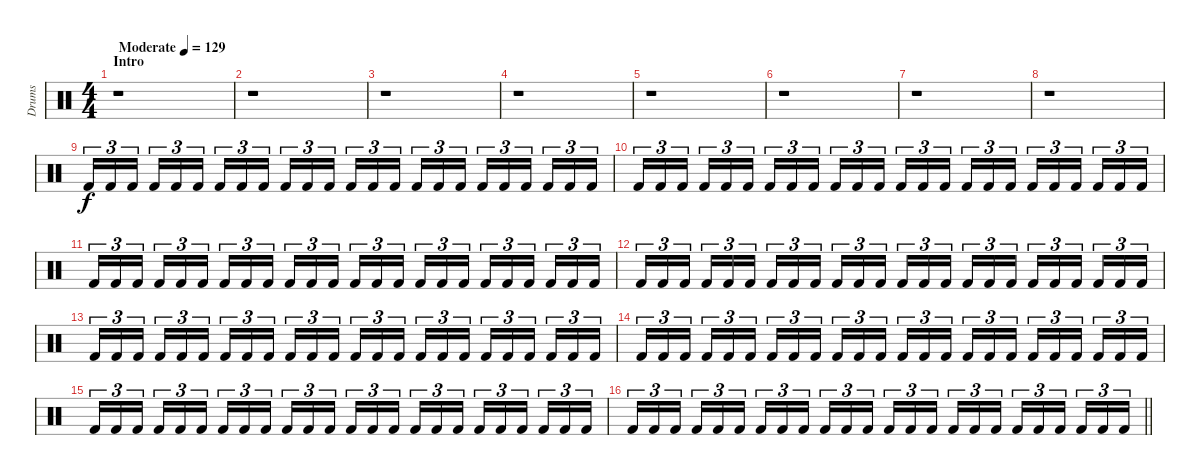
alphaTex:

\track ("Drums" "Drums") {instrument percussion}
\staff {score}
\articulation defaults
\ts (4 4)
\section ("" "Intro")
\tempo (129 "Moderate")
\clef neutral
\ks c
r.1{dy f} |
r.1 |
r.1 |
r.1 |
r.1 |
r.1 |
r.1 |
r.1 |
"Kick (hit) 2".16{tu (3 2)} "Kick (hit) 2".16{tu (3 2)} "Kick (hit) 2".16{tu (3 2) beam splitsecondary} "Kick (hit) 2".16{tu (3 2)} "Kick (hit) 2".16{tu (3 2)} "Kick (hit) 2".16{tu (3 2)} "Kick (hit) 2".16{tu (3 2)} "Kick (hit) 2".16{tu (3 2)} "Kick (hit) 2".16{tu (3 2) beam splitsecondary} "Kick (hit) 2".16{tu (3 2)} "Kick (hit) 2".16{tu (3 2)} "Kick (hit) 2".16{tu (3 2)} "Kick (hit) 2".16{tu (3 2)} "Kick (hit) 2".16{tu (3 2)} "Kick (hit) 2".16{tu (3 2) beam splitsecondary} "Kick (hit) 2".16{tu (3 2)} "Kick (hit) 2".16{tu (3 2)} "Kick (hit) 2".16{tu (3 2)} "Kick (hit) 2".16{tu (3 2)} "Kick (hit) 2".16{tu (3 2)} "Kick (hit) 2".16{tu (3 2) beam splitsecondary} "Kick (hit) 2".16{tu (3 2)} "Kick (hit) 2".16{tu (3 2)} "Kick (hit) 2".16{tu (3 2)} |
"Kick (hit) 2".16{tu (3 2)} "Kick (hit) 2".16{tu (3 2)} "Kick (hit) 2".16{tu (3 2) beam splitsecondary} "Kick (hit) 2".16{tu (3 2)} "Kick (hit) 2".16{tu (3 2)} "Kick (hit) 2".16{tu (3 2)} "Kick (hit) 2".16{tu (3 2)} "Kick (hit) 2".16{tu (3 2)} "Kick (hit) 2".16{tu (3 2) beam splitsecondary} "Kick (hit) 2".16{tu (3 2)} "Kick (hit) 2".16{tu (3 2)} "Kick (hit) 2".16{tu (3 2)} "Kick (hit) 2".16{tu (3 2)} "Kick (hit) 2".16{tu (3 2)} "Kick (hit) 2".16{tu (3 2) beam splitsecondary} "Kick (hit) 2".16{tu (3 2)} "Kick (hit) 2".16{tu (3 2)} "Kick (hit) 2".16{tu (3 2)} "Kick (hit) 2".16{tu (3 2)} "Kick (hit) 2".16{tu (3 2)} "Kick (hit) 2".16{tu (3 2) beam splitsecondary} "Kick (hit) 2".16{tu (3 2)} "Kick (hit) 2".16{tu (3 2)} "Kick (hit) 2".16{tu (3 2)} |
"Kick (hit) 2".16{tu (3 2)} "Kick (hit) 2".16{tu (3 2)} "Kick (hit) 2".16{tu (3 2) beam splitsecondary} "Kick (hit) 2".16{tu (3 2)} "Kick (hit) 2".16{tu (3 2)} "Kick (hit) 2".16{tu (3 2)} "Kick (hit) 2".16{tu (3 2)} "Kick (hit) 2".16{tu (3 2)} "Kick (hit) 2".16{tu (3 2) beam splitsecondary} "Kick (hit) 2".16{tu (3 2)} "Kick (hit) 2".16{tu (3 2)} "Kick (hit) 2".16{tu (3 2)} "Kick (hit) 2".16{tu (3 2)} "Kick (hit) 2".16{tu (3 2)} "Kick (hit) 2".16{tu (3 2) beam splitsecondary} "Kick (hit) 2".16{tu (3 2)} "Kick (hit) 2".16{tu (3 2)} "Kick (hit) 2".16{tu (3 2)} "Kick (hit) 2".16{tu (3 2)} "Kick (hit) 2".16{tu (3 2)} "Kick (hit) 2".16{tu (3 2) beam splitsecondary} "Kick (hit) 2".16{tu (3 2)} "Kick (hit) 2".16{tu (3 2)} "Kick (hit) 2".16{tu (3 2)} |
"Kick (hit) 2".16{tu (3 2)} "Kick (hit) 2".16{tu (3 2)} "Kick (hit) 2".16{tu (3 2) beam splitsecondary} "Kick (hit) 2".16{tu (3 2)} "Kick (hit) 2".16{tu (3 2)} "Kick (hit) 2".16{tu (3 2)} "Kick (hit) 2".16{tu (3 2)} "Kick (hit) 2".16{tu (3 2)} "Kick (hit) 2".16{tu (3 2) beam splitsecondary} "Kick (hit) 2".16{tu (3 2)} "Kick (hit) 2".16{tu (3 2)} "Kick (hit) 2".16{tu (3 2)} "Kick (hit) 2".16{tu (3 2)} "Kick (hit) 2".16{tu (3 2)} "Kick (hit) 2".16{tu (3 2) beam splitsecondary} "Kick (hit) 2".16{tu (3 2)} "Kick (hit) 2".16{tu (3 2)} "Kick (hit) 2".16{tu (3 2)} "Kick (hit) 2".16{tu (3 2)} "Kick (hit) 2".16{tu (3 2)} "Kick (hit) 2".16{tu (3 2) beam splitsecondary} "Kick (hit) 2".16{tu (3 2)} "Kick (hit) 2".16{tu (3 2)} "Kick (hit) 2".16{tu (3 2)} |
"Kick (hit) 2".16{tu (3 2)} "Kick (hit) 2".16{tu (3 2)} "Kick (hit) 2".16{tu (3 2) beam splitsecondary} "Kick (hit) 2".16{tu (3 2)} "Kick (hit) 2".16{tu (3 2)} "Kick (hit) 2".16{tu (3 2)} "Kick (hit) 2".16{tu (3 2)} "Kick (hit) 2".16{tu (3 2)} "Kick (hit) 2".16{tu (3 2) beam splitsecondary} "Kick (hit) 2".16{tu (3 2)} "Kick (hit) 2".16{tu (3 2)} "Kick (hit) 2".16{tu (3 2)} "Kick (hit) 2".16{tu (3 2)} "Kick (hit) 2".16{tu (3 2)} "Kick (hit) 2".16{tu (3 2) beam splitsecondary} "Kick (hit) 2".16{tu (3 2)} "Kick (hit) 2".16{tu (3 2)} "Kick (hit) 2".16{tu (3 2)} "Kick (hit) 2".16{tu (3 2)} "Kick (hit) 2".16{tu (3 2)} "Kick (hit) 2".16{tu (3 2) beam splitsecondary} "Kick (hit) 2".16{tu (3 2)} "Kick (hit) 2".16{tu (3 2)} "Kick (hit) 2".16{tu (3 2)} |
"Kick (hit) 2".16{tu (3 2)} "Kick (hit) 2".16{tu (3 2)} "Kick (hit) 2".16{tu (3 2) beam splitsecondary} "Kick (hit) 2".16{tu (3 2)} "Kick (hit) 2".16{tu (3 2)} "Kick (hit) 2".16{tu (3 2)} "Kick (hit) 2".16{tu (3 2)} "Kick (hit) 2".16{tu (3 2)} "Kick (hit) 2".16{tu (3 2) beam splitsecondary} "Kick (hit) 2".16{tu (3 2)} "Kick (hit) 2".16{tu (3 2)} "Kick (hit) 2".16{tu (3 2)} "Kick (hit) 2".16{tu (3 2)} "Kick (hit) 2".16{tu (3 2)} "Kick (hit) 2".16{tu (3 2) beam splitsecondary} "Kick (hit) 2".16{tu (3 2)} "Kick (hit) 2".16{tu (3 2)} "Kick (hit) 2".16{tu (3 2)} "Kick (hit) 2".16{tu (3 2)} "Kick (hit) 2".16{tu (3 2)} "Kick (hit) 2".16{tu (3 2) beam splitsecondary} "Kick (hit) 2".16{tu (3 2)} "Kick (hit) 2".16{tu (3 2)} "Kick (hit) 2".16{tu (3 2)} |
"Kick (hit) 2".16{tu (3 2)} "Kick (hit) 2".16{tu (3 2)} "Kick (hit) 2".16{tu (3 2) beam splitsecondary} "Kick (hit) 2".16{tu (3 2)} "Kick (hit) 2".16{tu (3 2)} "Kick (hit) 2".16{tu (3 2)} "Kick (hit) 2".16{tu (3 2)} "Kick (hit) 2".16{tu (3 2)} "Kick (hit) 2".16{tu (3 2) beam splitsecondary} "Kick (hit) 2".16{tu (3 2)} "Kick (hit) 2".16{tu (3 2)} "Kick (hit) 2".16{tu (3 2)} "Kick (hit) 2".16{tu (3 2)} "Kick (hit) 2".16{tu (3 2)} "Kick (hit) 2".16{tu (3 2) beam splitsecondary} "Kick (hit) 2".16{tu (3 2)} "Kick (hit) 2".16{tu (3 2)} "Kick (hit) 2".16{tu (3 2)} "Kick (hit) 2".16{tu (3 2)} "Kick (hit) 2".16{tu (3 2)} "Kick (hit) 2".16{tu (3 2) beam splitsecondary} "Kick (hit) 2".16{tu (3 2)} "Kick (hit) 2".16{tu (3 2)} "Kick (hit) 2".16{tu (3 2)} |
\barLineRight lightlight "Kick (hit) 2".16{tu (3 2)} "Kick (hit) 2".16{tu (3 2)} "Kick (hit) 2".16{tu (3 2) beam splitsecondary} "Kick (hit) 2".16{tu (3 2)} "Kick (hit) 2".16{tu (3 2)} "Kick (hit) 2".16{tu (3 2)} "Kick (hit) 2".16{tu (3 2)} "Kick (hit) 2".16{tu (3 2)} "Kick (hit) 2".16{tu (3 2) beam splitsecondary} "Kick (hit) 2".16{tu (3 2)} "Kick (hit) 2".16{tu (3 2)} "Kick (hit) 2".16{tu (3 2)} "Kick (hit) 2".16{tu (3 2)} "Kick (hit) 2".16{tu (3 2)} "Kick (hit) 2".16{tu (3 2) beam splitsecondary} "Kick (hit) 2".16{tu (3 2)} "Kick (hit) 2".16{tu (3 2)} "Kick (hit) 2".16{tu (3 2)} "Kick (hit) 2".16{tu (3 2)} "Kick (hit) 2".16{tu (3 2)} "Kick (hit) 2".16{tu (3 2) beam splitsecondary} "Kick (hit) 2".16{tu (3 2)} "Kick (hit) 2".16{tu (3 2)} "Kick (hit) 2".16{tu (3 2)}
